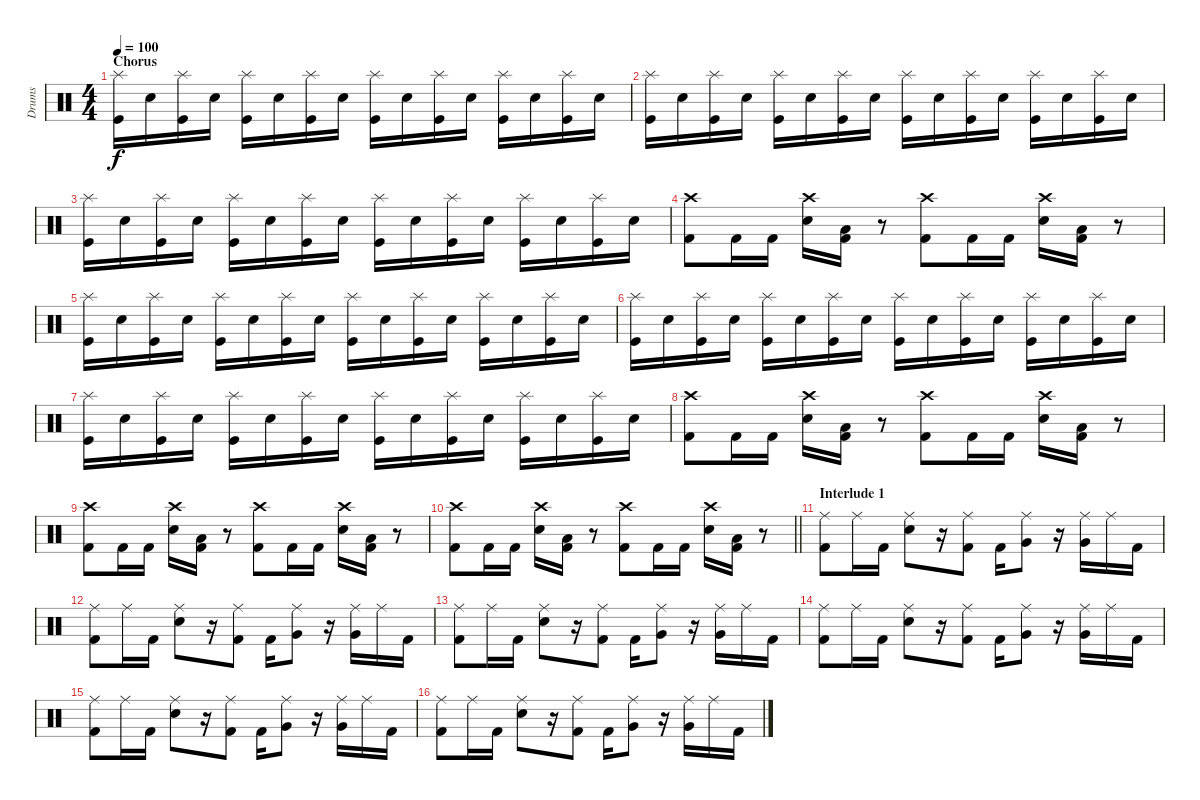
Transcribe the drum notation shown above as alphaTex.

\track ("Drums" "Drums") {instrument percussion}
\staff {score}
\articulation defaults
\ts (4 4)
\section ("" "Chorus")
\tempo 100
\clef neutral
\ks c
("Splash (hit)" "Kick (hit)").16{dy f} "Electric Snare (hit)".16 ("Splash (hit)" "Kick (hit)").16 "Electric Snare (hit)".16 ("Splash (hit)" "Kick (hit)").16 "Electric Snare (hit)".16 ("Splash (hit)" "Kick (hit)").16 "Electric Snare (hit)".16 ("Splash (hit)" "Kick (hit)").16 "Electric Snare (hit)".16 ("Splash (hit)" "Kick (hit)").16 "Electric Snare (hit)".16 ("Splash (hit)" "Kick (hit)").16 "Electric Snare (hit)".16 ("Splash (hit)" "Kick (hit)").16 "Electric Snare (hit)".16 |
("Splash (hit)" "Kick (hit)").16 "Electric Snare (hit)".16 ("Splash (hit)" "Kick (hit)").16 "Electric Snare (hit)".16 ("Splash (hit)" "Kick (hit)").16 "Electric Snare (hit)".16 ("Splash (hit)" "Kick (hit)").16 "Electric Snare (hit)".16 ("Splash (hit)" "Kick (hit)").16 "Electric Snare (hit)".16 ("Splash (hit)" "Kick (hit)").16 "Electric Snare (hit)".16 ("Splash (hit)" "Kick (hit)").16 "Electric Snare (hit)".16 ("Splash (hit)" "Kick (hit)").16 "Electric Snare (hit)".16 |
("Splash (hit)" "Kick (hit)").16 "Electric Snare (hit)".16 ("Splash (hit)" "Kick (hit)").16 "Electric Snare (hit)".16 ("Splash (hit)" "Kick (hit)").16 "Electric Snare (hit)".16 ("Splash (hit)" "Kick (hit)").16 "Electric Snare (hit)".16 ("Splash (hit)" "Kick (hit)").16 "Electric Snare (hit)".16 ("Splash (hit)" "Kick (hit)").16 "Electric Snare (hit)".16 ("Splash (hit)" "Kick (hit)").16 "Electric Snare (hit)".16 ("Splash (hit)" "Kick (hit)").16 "Electric Snare (hit)".16 |
("Crash high (hit)" "Kick (hit) 2").8 "Kick (hit) 2".16 "Kick (hit) 2".16 ("Crash high (hit)" "Electric Snare (hit)").16 ("Low Tom (hit)" "Kick (hit) 2").16 r.8 ("Crash high (hit)" "Kick (hit) 2").8 "Kick (hit) 2".16 "Kick (hit) 2".16 ("Crash high (hit)" "Electric Snare (hit)").16 ("Low Tom (hit)" "Kick (hit) 2").16 r.8 |
("Splash (hit)" "Kick (hit)").16 "Electric Snare (hit)".16 ("Splash (hit)" "Kick (hit)").16 "Electric Snare (hit)".16 ("Splash (hit)" "Kick (hit)").16 "Electric Snare (hit)".16 ("Splash (hit)" "Kick (hit)").16 "Electric Snare (hit)".16 ("Splash (hit)" "Kick (hit)").16 "Electric Snare (hit)".16 ("Splash (hit)" "Kick (hit)").16 "Electric Snare (hit)".16 ("Splash (hit)" "Kick (hit)").16 "Electric Snare (hit)".16 ("Splash (hit)" "Kick (hit)").16 "Electric Snare (hit)".16 |
("Splash (hit)" "Kick (hit)").16 "Electric Snare (hit)".16 ("Splash (hit)" "Kick (hit)").16 "Electric Snare (hit)".16 ("Splash (hit)" "Kick (hit)").16 "Electric Snare (hit)".16 ("Splash (hit)" "Kick (hit)").16 "Electric Snare (hit)".16 ("Splash (hit)" "Kick (hit)").16 "Electric Snare (hit)".16 ("Splash (hit)" "Kick (hit)").16 "Electric Snare (hit)".16 ("Splash (hit)" "Kick (hit)").16 "Electric Snare (hit)".16 ("Splash (hit)" "Kick (hit)").16 "Electric Snare (hit)".16 |
("Splash (hit)" "Kick (hit)").16 "Electric Snare (hit)".16 ("Splash (hit)" "Kick (hit)").16 "Electric Snare (hit)".16 ("Splash (hit)" "Kick (hit)").16 "Electric Snare (hit)".16 ("Splash (hit)" "Kick (hit)").16 "Electric Snare (hit)".16 ("Splash (hit)" "Kick (hit)").16 "Electric Snare (hit)".16 ("Splash (hit)" "Kick (hit)").16 "Electric Snare (hit)".16 ("Splash (hit)" "Kick (hit)").16 "Electric Snare (hit)".16 ("Splash (hit)" "Kick (hit)").16 "Electric Snare (hit)".16 |
("Crash high (hit)" "Kick (hit) 2").8 "Kick (hit) 2".16 "Kick (hit) 2".16 ("Crash high (hit)" "Electric Snare (hit)").16 ("Low Tom (hit)" "Kick (hit) 2").16 r.8 ("Crash high (hit)" "Kick (hit) 2").8 "Kick (hit) 2".16 "Kick (hit) 2".16 ("Crash high (hit)" "Electric Snare (hit)").16 ("Low Tom (hit)" "Kick (hit) 2").16 r.8 |
("Crash high (hit)" "Kick (hit) 2").8 "Kick (hit) 2".16 "Kick (hit) 2".16 ("Crash high (hit)" "Electric Snare (hit)").16 ("Low Tom (hit)" "Kick (hit) 2").16 r.8 ("Crash high (hit)" "Kick (hit) 2").8 "Kick (hit) 2".16 "Kick (hit) 2".16 ("Crash high (hit)" "Electric Snare (hit)").16 ("Low Tom (hit)" "Kick (hit) 2").16 r.8 |
\barLineRight lightlight
("Crash high (hit)" "Kick (hit) 2").8 "Kick (hit) 2".16 "Kick (hit) 2".16 ("Crash high (hit)" "Electric Snare (hit)").16 ("Low Tom (hit)" "Kick (hit) 2").16 r.8 ("Crash high (hit)" "Kick (hit) 2").8 "Kick (hit) 2".16 "Kick (hit) 2".16 ("Crash high (hit)" "Electric Snare (hit)").16 ("Low Tom (hit)" "Kick (hit) 2").16 r.8 |
\section ("" "Interlude 1")
("Ride (middle)" "Kick (hit) 2").8 "Ride (middle)".16 "Kick (hit) 2".16 ("Ride (middle)" "Electric Snare (hit)").8 r.16 ("Ride (middle)" "Kick (hit) 2").8 "Kick (hit) 2".16 ("Ride (middle)" "Very Low Tom (hit)").8 r.16 ("Ride (middle)" "Very Low Tom (hit)").16 "Ride (middle)".16 "Kick (hit) 2".16 |
("Ride (middle)" "Kick (hit) 2").8 "Ride (middle)".16 "Kick (hit) 2".16 ("Ride (middle)" "Electric Snare (hit)").8 r.16 ("Ride (middle)" "Kick (hit) 2").8 "Kick (hit) 2".16 ("Ride (middle)" "Very Low Tom (hit)").8 r.16 ("Ride (middle)" "Very Low Tom (hit)").16 "Ride (middle)".16 "Kick (hit) 2".16 |
("Ride (middle)" "Kick (hit) 2").8 "Ride (middle)".16 "Kick (hit) 2".16 ("Ride (middle)" "Electric Snare (hit)").8 r.16 ("Ride (middle)" "Kick (hit) 2").8 "Kick (hit) 2".16 ("Ride (middle)" "Very Low Tom (hit)").8 r.16 ("Ride (middle)" "Very Low Tom (hit)").16 "Ride (middle)".16 "Kick (hit) 2".16 |
("Ride (middle)" "Kick (hit) 2").8 "Ride (middle)".16 "Kick (hit) 2".16 ("Ride (middle)" "Electric Snare (hit)").8 r.16 ("Ride (middle)" "Kick (hit) 2").8 "Kick (hit) 2".16 ("Ride (middle)" "Very Low Tom (hit)").8 r.16 ("Ride (middle)" "Very Low Tom (hit)").16 "Ride (middle)".16 "Kick (hit) 2".16 |
("Ride (middle)" "Kick (hit) 2").8 "Ride (middle)".16 "Kick (hit) 2".16 ("Ride (middle)" "Electric Snare (hit)").8 r.16 ("Ride (middle)" "Kick (hit) 2").8 "Kick (hit) 2".16 ("Ride (middle)" "Very Low Tom (hit)").8 r.16 ("Ride (middle)" "Very Low Tom (hit)").16 "Ride (middle)".16 "Kick (hit) 2".16 |
("Ride (middle)" "Kick (hit) 2").8 "Ride (middle)".16 "Kick (hit) 2".16 ("Ride (middle)" "Electric Snare (hit)").8 r.16 ("Ride (middle)" "Kick (hit) 2").8 "Kick (hit) 2".16 ("Ride (middle)" "Very Low Tom (hit)").8 r.16 ("Ride (middle)" "Very Low Tom (hit)").16 "Ride (middle)".16 "Kick (hit) 2".16
